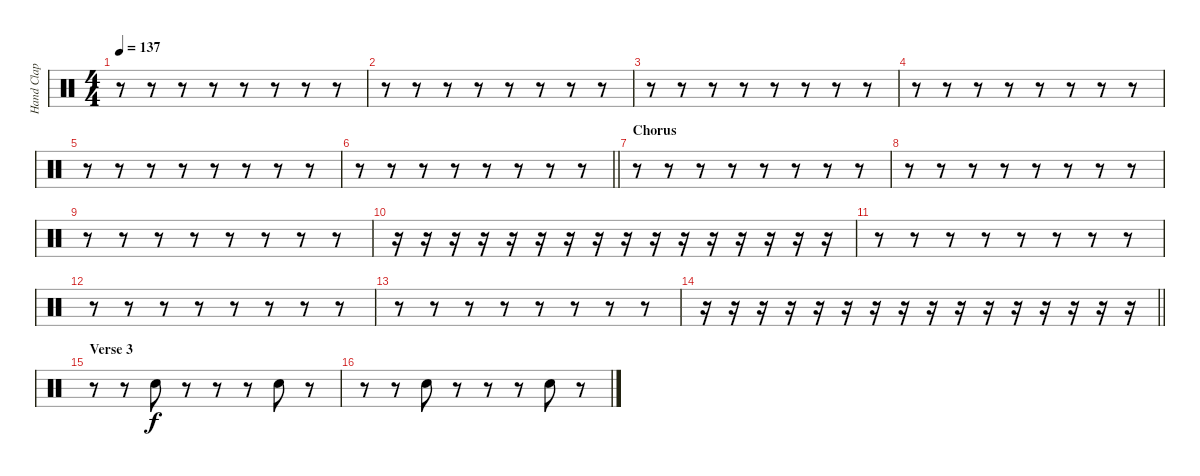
\track ("Hand Clap" "Hand Clap") {instrument percussion}
\staff {score}
\articulation defaults
\ts (4 4)
\tempo 137
\clef neutral
\ks c
r.8{dy f} r.8 r.8 r.8 r.8 r.8 r.8 r.8 |
r.8 r.8 r.8 r.8 r.8 r.8 r.8 r.8 |
r.8 r.8 r.8 r.8 r.8 r.8 r.8 r.8 |
r.8 r.8 r.8 r.8 r.8 r.8 r.8 r.8 |
r.8 r.8 r.8 r.8 r.8 r.8 r.8 r.8 |
\barLineRight lightlight
r.8 r.8 r.8 r.8 r.8 r.8 r.8 r.8 |
\section ("" "Chorus")
r.8 r.8 r.8 r.8 r.8 r.8 r.8 r.8 |
r.8 r.8 r.8 r.8 r.8 r.8 r.8 r.8 |
r.8 r.8 r.8 r.8 r.8 r.8 r.8 r.8 |
r.16 r.16 r.16 r.16 r.16 r.16 r.16 r.16 r.16 r.16 r.16 r.16 r.16 r.16 r.16 r.16 |
r.8 r.8 r.8 r.8 r.8 r.8 r.8 r.8 |
r.8 r.8 r.8 r.8 r.8 r.8 r.8 r.8 |
r.8 r.8 r.8 r.8 r.8 r.8 r.8 r.8 |
\barLineRight lightlight
r.16 r.16 r.16 r.16 r.16 r.16 r.16 r.16 r.16 r.16 r.16 r.16 r.16 r.16 r.16 r.16 |
\section ("" "Verse 3")
r.8 r.8 "Hand Clap (hit)".8 r.8 r.8 r.8 "Hand Clap (hit)".8 r.8 |
r.8 r.8 "Hand Clap (hit)".8 r.8 r.8 r.8 "Hand Clap (hit)".8 r.8
